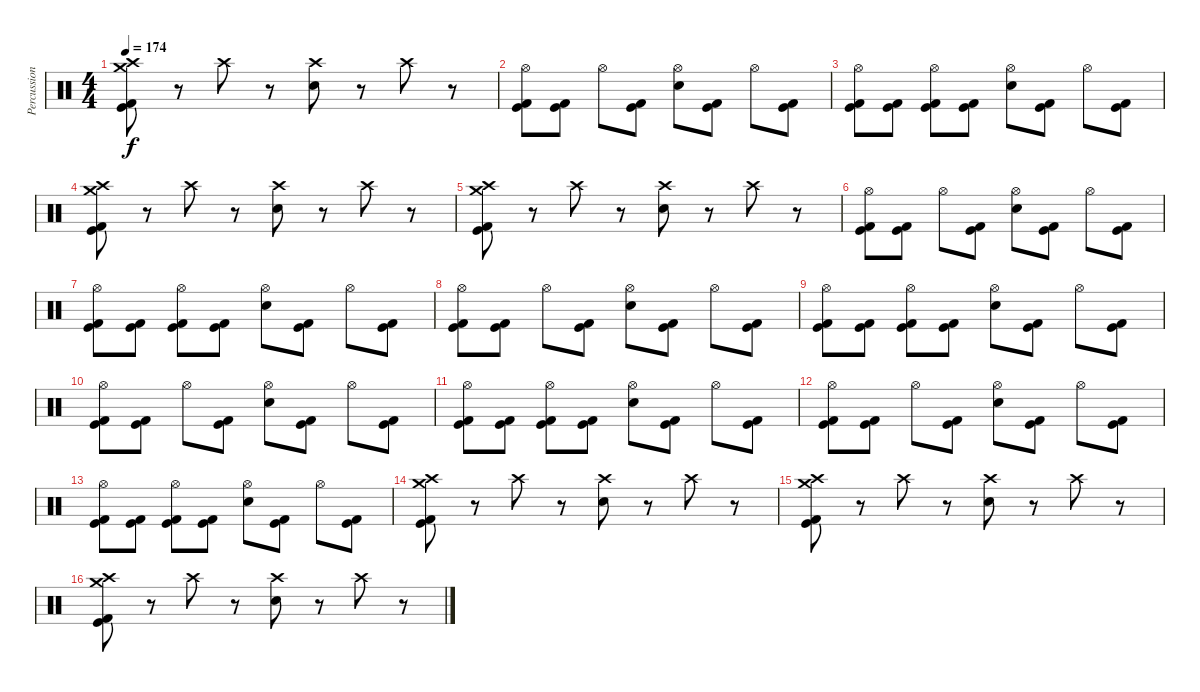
\track ("Percussion" "Percussion") {instrument percussion}
\staff {score}
\articulation defaults
\ts (4 4)
\tempo 174
\clef neutral
\ks c
("Crash high (hit)" "Crash medium (hit)" "Kick (hit) 2" "Kick (hit)").8{dy f} r.8 "Crash high (hit)".8 r.8 ("Crash high (hit)" "Electric Snare (hit)").8 r.8 "Crash high (hit)".8 r.8 |
("Hi-Hat (open)" "Kick (hit) 2" "Kick (hit)").8 ("Kick (hit) 2" "Kick (hit)").8 "Hi-Hat (open)".8 ("Kick (hit) 2" "Kick (hit)").8 ("Hi-Hat (open)" "Electric Snare (hit)").8 ("Kick (hit) 2" "Kick (hit)").8 "Hi-Hat (open)".8 ("Kick (hit) 2" "Kick (hit)").8 |
("Hi-Hat (open)" "Kick (hit) 2" "Kick (hit)").8 ("Kick (hit) 2" "Kick (hit)").8 ("Hi-Hat (open)" "Kick (hit) 2" "Kick (hit)").8 ("Kick (hit) 2" "Kick (hit)").8 ("Hi-Hat (open)" "Electric Snare (hit)").8 ("Kick (hit) 2" "Kick (hit)").8 "Hi-Hat (open)".8 ("Kick (hit) 2" "Kick (hit)").8 |
("Crash high (hit)" "Crash medium (hit)" "Kick (hit) 2" "Kick (hit)").8 r.8 "Crash high (hit)".8 r.8 ("Crash high (hit)" "Electric Snare (hit)").8 r.8 "Crash high (hit)".8 r.8 |
("Crash high (hit)" "Crash medium (hit)" "Kick (hit) 2" "Kick (hit)").8 r.8 "Crash high (hit)".8 r.8 ("Crash high (hit)" "Electric Snare (hit)").8 r.8 "Crash high (hit)".8 r.8 |
("Hi-Hat (open)" "Kick (hit) 2" "Kick (hit)").8 ("Kick (hit) 2" "Kick (hit)").8 "Hi-Hat (open)".8 ("Kick (hit) 2" "Kick (hit)").8 ("Hi-Hat (open)" "Electric Snare (hit)").8 ("Kick (hit) 2" "Kick (hit)").8 "Hi-Hat (open)".8 ("Kick (hit) 2" "Kick (hit)").8 |
("Hi-Hat (open)" "Kick (hit) 2" "Kick (hit)").8 ("Kick (hit) 2" "Kick (hit)").8 ("Hi-Hat (open)" "Kick (hit) 2" "Kick (hit)").8 ("Kick (hit) 2" "Kick (hit)").8 ("Hi-Hat (open)" "Electric Snare (hit)").8 ("Kick (hit) 2" "Kick (hit)").8 "Hi-Hat (open)".8 ("Kick (hit) 2" "Kick (hit)").8 |
("Hi-Hat (open)" "Kick (hit) 2" "Kick (hit)").8 ("Kick (hit) 2" "Kick (hit)").8 "Hi-Hat (open)".8 ("Kick (hit) 2" "Kick (hit)").8 ("Hi-Hat (open)" "Electric Snare (hit)").8 ("Kick (hit) 2" "Kick (hit)").8 "Hi-Hat (open)".8 ("Kick (hit) 2" "Kick (hit)").8 |
("Hi-Hat (open)" "Kick (hit) 2" "Kick (hit)").8 ("Kick (hit) 2" "Kick (hit)").8 ("Hi-Hat (open)" "Kick (hit) 2" "Kick (hit)").8 ("Kick (hit) 2" "Kick (hit)").8 ("Hi-Hat (open)" "Electric Snare (hit)").8 ("Kick (hit) 2" "Kick (hit)").8 "Hi-Hat (open)".8 ("Kick (hit) 2" "Kick (hit)").8 |
("Hi-Hat (open)" "Kick (hit) 2" "Kick (hit)").8 ("Kick (hit) 2" "Kick (hit)").8 "Hi-Hat (open)".8 ("Kick (hit) 2" "Kick (hit)").8 ("Hi-Hat (open)" "Electric Snare (hit)").8 ("Kick (hit) 2" "Kick (hit)").8 "Hi-Hat (open)".8 ("Kick (hit) 2" "Kick (hit)").8 |
("Hi-Hat (open)" "Kick (hit) 2" "Kick (hit)").8 ("Kick (hit) 2" "Kick (hit)").8 ("Hi-Hat (open)" "Kick (hit) 2" "Kick (hit)").8 ("Kick (hit) 2" "Kick (hit)").8 ("Hi-Hat (open)" "Electric Snare (hit)").8 ("Kick (hit) 2" "Kick (hit)").8 "Hi-Hat (open)".8 ("Kick (hit) 2" "Kick (hit)").8 |
("Hi-Hat (open)" "Kick (hit) 2" "Kick (hit)").8 ("Kick (hit) 2" "Kick (hit)").8 "Hi-Hat (open)".8 ("Kick (hit) 2" "Kick (hit)").8 ("Hi-Hat (open)" "Electric Snare (hit)").8 ("Kick (hit) 2" "Kick (hit)").8 "Hi-Hat (open)".8 ("Kick (hit) 2" "Kick (hit)").8 |
("Hi-Hat (open)" "Kick (hit) 2" "Kick (hit)").8 ("Kick (hit) 2" "Kick (hit)").8 ("Hi-Hat (open)" "Kick (hit) 2" "Kick (hit)").8 ("Kick (hit) 2" "Kick (hit)").8 ("Hi-Hat (open)" "Electric Snare (hit)").8 ("Kick (hit) 2" "Kick (hit)").8 "Hi-Hat (open)".8 ("Kick (hit) 2" "Kick (hit)").8 |
("Crash high (hit)" "Crash medium (hit)" "Kick (hit) 2" "Kick (hit)").8 r.8 "Crash high (hit)".8 r.8 ("Crash high (hit)" "Electric Snare (hit)").8 r.8 "Crash high (hit)".8 r.8 |
("Crash high (hit)" "Crash medium (hit)" "Kick (hit) 2" "Kick (hit)").8 r.8 "Crash high (hit)".8 r.8 ("Crash high (hit)" "Electric Snare (hit)").8 r.8 "Crash high (hit)".8 r.8 |
("Crash high (hit)" "Crash medium (hit)" "Kick (hit) 2" "Kick (hit)").8 r.8 "Crash high (hit)".8 r.8 ("Crash high (hit)" "Electric Snare (hit)").8 r.8 "Crash high (hit)".8 r.8
